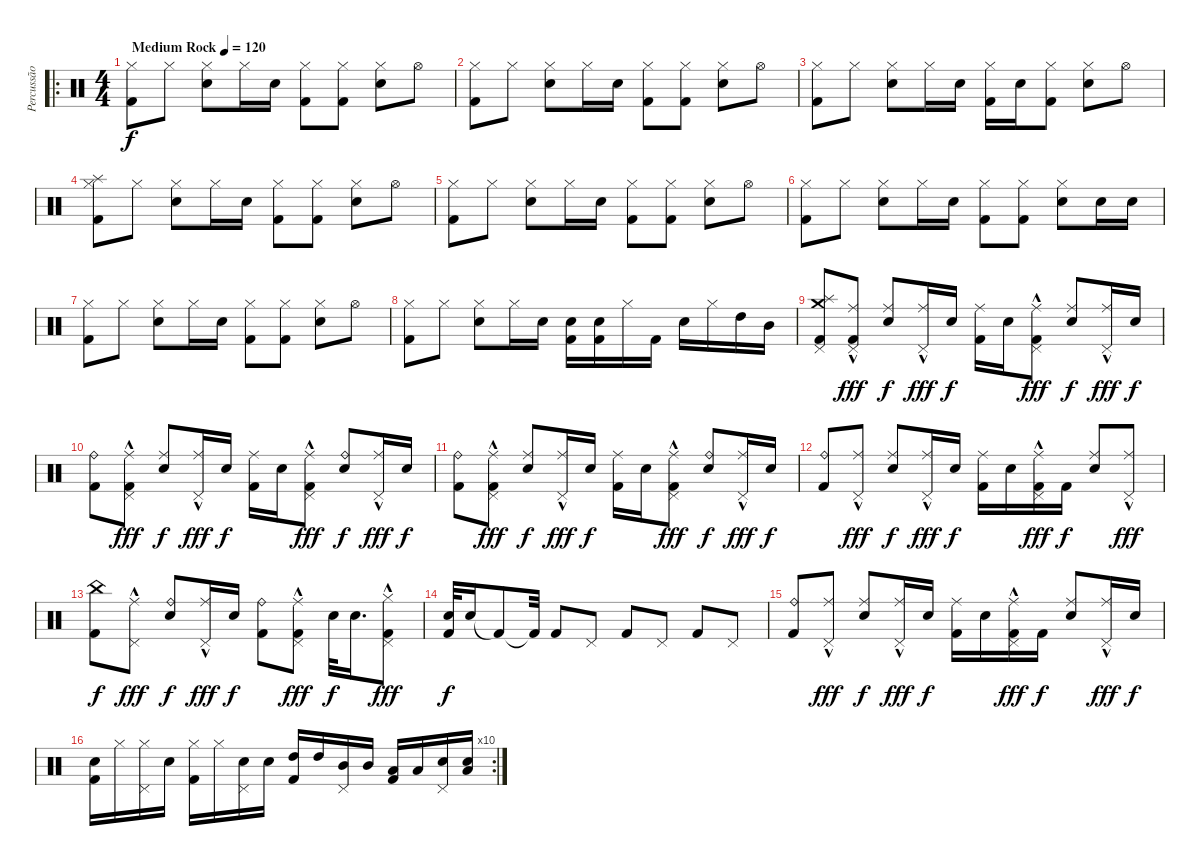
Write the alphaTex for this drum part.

\track ("Percussão" "Percussão") {instrument percussion}
\staff {score}
\articulation defaults
\ro
\ts (4 4)
\tempo (120 "Medium Rock")
\clef neutral
\ks c
("Hi-Hat (closed)" "Kick (hit) 2").8{dy f} "Hi-Hat (closed)".8 ("Hi-Hat (closed)" "Snare (hit) 2").8 "Hi-Hat (closed)".16 "Snare (hit) 2".16 ("Hi-Hat (closed)" "Kick (hit) 2").8 ("Hi-Hat (closed)" "Kick (hit) 2").8 ("Hi-Hat (closed)" "Snare (hit) 2").8 "Hi-Hat (open)".8 |
("Hi-Hat (closed)" "Kick (hit) 2").8 "Hi-Hat (closed)".8 ("Hi-Hat (closed)" "Snare (hit) 2").8 "Hi-Hat (closed)".16 "Snare (hit) 2".16 ("Hi-Hat (closed)" "Kick (hit) 2").8 ("Hi-Hat (closed)" "Kick (hit) 2").8 ("Hi-Hat (closed)" "Snare (hit) 2").8 "Hi-Hat (open)".8 |
("Hi-Hat (closed)" "Kick (hit) 2").8 "Hi-Hat (closed)".8 ("Hi-Hat (closed)" "Snare (hit) 2").8 "Hi-Hat (closed)".16 "Snare (hit) 2".16 ("Hi-Hat (closed)" "Kick (hit) 2").16 "Snare (hit) 2".16 ("Hi-Hat (closed)" "Kick (hit) 2").8 ("Hi-Hat (closed)" "Snare (hit) 2").8 "Hi-Hat (open)".8 |
("Splash (hit)" "Kick (hit) 2" "Hi-Hat (closed)").8 "Hi-Hat (closed)".8 ("Hi-Hat (closed)" "Snare (hit) 2").8 "Hi-Hat (closed)".16 "Snare (hit) 2".16 ("Hi-Hat (closed)" "Kick (hit) 2").8 ("Hi-Hat (closed)" "Kick (hit) 2").8 ("Hi-Hat (closed)" "Snare (hit) 2").8 "Hi-Hat (open)".8 |
("Hi-Hat (closed)" "Kick (hit) 2").8 "Hi-Hat (closed)".8 ("Hi-Hat (closed)" "Snare (hit) 2").8 "Hi-Hat (closed)".16 "Snare (hit) 2".16 ("Hi-Hat (closed)" "Kick (hit) 2").8 ("Hi-Hat (closed)" "Kick (hit) 2").8 ("Hi-Hat (closed)" "Snare (hit) 2").8 "Hi-Hat (open)".8 |
("Hi-Hat (closed)" "Kick (hit) 2").8 "Hi-Hat (closed)".8 ("Hi-Hat (closed)" "Snare (hit) 2").8 "Hi-Hat (closed)".16 "Snare (hit) 2".16 ("Hi-Hat (closed)" "Kick (hit) 2").8 ("Hi-Hat (closed)" "Kick (hit) 2").8 ("Hi-Hat (closed)" "Snare (hit) 2").8 "Snare (hit) 2".16 "Snare (hit) 2".16 |
("Hi-Hat (closed)" "Kick (hit) 2").8 "Hi-Hat (closed)".8 ("Hi-Hat (closed)" "Snare (hit) 2").8 "Hi-Hat (closed)".16 "Snare (hit) 2".16 ("Hi-Hat (closed)" "Kick (hit) 2").8 ("Hi-Hat (closed)" "Kick (hit) 2").8 ("Hi-Hat (closed)" "Snare (hit) 2").8 "Hi-Hat (open)".8 |
("Hi-Hat (closed)" "Kick (hit) 2").8 "Hi-Hat (closed)".8 ("Hi-Hat (closed)" "Snare (hit) 2").8 "Hi-Hat (closed)".16 "Snare (hit) 2".16 ("Snare (hit) 2" "Kick (hit) 2").16 ("Snare (hit) 2" "Kick (hit) 2").16 "Hi-Hat (closed)".16 "Kick (hit) 2".16 "Snare (hit) 2".16 "Hi-Hat (closed)".16 "High Tom (hit)".16 "Mid Tom (hit)".16 |
("Crash medium (hit)" "Kick (hit) 2" "Pedal Hi-Hat (hit)" "Splash (hit)").8 ("Ride (middle)" "Kick (hit) 2" "Pedal Hi-Hat (hit)"{hac}).8{dy fff} ("Ride (middle)" "Snare (hit) 2").8{dy f} ("Ride (middle)" "Pedal Hi-Hat (hit)"{hac}).16{dy fff} "Snare (hit) 2".16{dy f} ("Ride (middle)" "Kick (hit) 2").16 "Snare (hit) 2".16 ("Ride (middle)" "Kick (hit) 2" "Pedal Hi-Hat (hit)"{hac}).8{dy fff} ("Ride (middle)" "Snare (hit) 2").8{dy f} ("Ride (middle)" "Pedal Hi-Hat (hit)"{hac}).16{dy fff} "Snare (hit) 2".16{dy f} |
("Ride (bell)" "Kick (hit) 2").8 ("Ride (middle)" "Kick (hit) 2" "Pedal Hi-Hat (hit)"{hac}).8{dy fff} ("Ride (middle)" "Snare (hit) 2").8{dy f} ("Ride (middle)" "Pedal Hi-Hat (hit)"{hac}).16{dy fff} "Snare (hit) 2".16{dy f} ("Ride (middle)" "Kick (hit) 2").16 "Snare (hit) 2".16 ("Ride (middle)" "Kick (hit) 2" "Pedal Hi-Hat (hit)"{hac}).8{dy fff} ("Ride (bell)" "Snare (hit) 2").8{dy f} ("Ride (middle)" "Pedal Hi-Hat (hit)"{hac}).16{dy fff} "Snare (hit) 2".16{dy f} |
("Ride (bell)" "Kick (hit) 2").8 ("Ride (middle)" "Kick (hit) 2" "Pedal Hi-Hat (hit)"{hac}).8{dy fff} ("Ride (middle)" "Snare (hit) 2").8{dy f} ("Ride (middle)" "Pedal Hi-Hat (hit)"{hac}).16{dy fff} "Snare (hit) 2".16{dy f} ("Ride (middle)" "Kick (hit) 2").16 "Snare (hit) 2".16 ("Ride (middle)" "Kick (hit) 2" "Pedal Hi-Hat (hit)"{hac}).8{dy fff} ("Ride (bell)" "Snare (hit) 2").8{dy f} ("Ride (middle)" "Pedal Hi-Hat (hit)"{hac}).16{dy fff} "Snare (hit) 2".16{dy f} |
("Ride (bell)" "Kick (hit) 2").8 ("Ride (middle)" "Pedal Hi-Hat (hit)"{hac}).8{dy fff} ("Ride (middle)" "Snare (hit) 2").8{dy f} ("Ride (middle)" "Pedal Hi-Hat (hit)"{hac}).16{dy fff} "Snare (hit) 2".16{dy f} ("Ride (middle)" "Kick (hit) 2").16 "Snare (hit) 2".16 ("Ride (middle)" "Kick (hit) 2" "Pedal Hi-Hat (hit)"{hac}).16{dy fff} "Kick (hit) 2".16{dy f} ("Ride (middle)" "Snare (hit) 2").8 ("Ride (middle)" "Pedal Hi-Hat (hit)"{hac}).8{dy fff} |
("Kick (hit) 2" "China (hit)").8{dy f} ("Ride (middle)" "Pedal Hi-Hat (hit)"{hac}).8{dy fff} ("Ride (bell)" "Snare (hit) 2").8{dy f} ("Ride (middle)" "Pedal Hi-Hat (hit)"{hac}).16{dy fff} "Snare (hit) 2".16{dy f} ("Ride (bell)" "Kick (hit) 2").8 ("Ride (middle)" "Kick (hit) 2" "Pedal Hi-Hat (hit)"{hac}).8{dy fff} "Snare (hit) 2".32{dy f} "Snare (hit) 2".16{d} ("Hi-Hat (closed)" "Kick (hit) 2"{hac} "Pedal Hi-Hat (hit)"{hac}).8{dy fff} |
("Snare (hit) 2" "Kick (hit) 2").32{dy f} "Snare (hit) 2".16 "Kick (hit) 2"{t}.8 "Kick (hit) 2"{t}.32 "Kick (hit) 2".8 "Pedal Hi-Hat (hit)".8 "Kick (hit) 2".8 "Pedal Hi-Hat (hit)".8 "Kick (hit) 2".8 "Pedal Hi-Hat (hit)".8 |
("Ride (bell)" "Kick (hit) 2").8 ("Ride (middle)" "Pedal Hi-Hat (hit)"{hac}).8{dy fff} ("Ride (middle)" "Snare (hit) 2").8{dy f} ("Ride (middle)" "Pedal Hi-Hat (hit)"{hac}).16{dy fff} "Snare (hit) 2".16{dy f} ("Ride (middle)" "Kick (hit) 2").16 "Snare (hit) 2".16 ("Ride (middle)" "Kick (hit) 2" "Pedal Hi-Hat (hit)"{hac}).16{dy fff} "Kick (hit) 2".16{dy f} ("Ride (middle)" "Snare (hit) 2").8 ("Ride (middle)" "Pedal Hi-Hat (hit)"{hac}).16{dy fff} "Snare (hit) 2".16{dy f} |
\rc 10
("Snare (hit) 2" "Kick (hit) 2").16 "Hi-Hat (closed)".16 ("Hi-Hat (closed)" "Pedal Hi-Hat (hit)").16 "Snare (hit) 2".16 ("Hi-Hat (closed)" "Kick (hit) 2").16 "Hi-Hat (closed)".16 ("Snare (hit) 2" "Pedal Hi-Hat (hit)").16 "Snare (hit) 2".16 ("High Tom (hit)" "Kick (hit) 2").16 "High Tom (hit)".16 ("Mid Tom (hit)" "Pedal Hi-Hat (hit)").16 "Mid Tom (hit)".16 ("Low Tom (hit)" "Kick (hit) 2").16 "Low Tom (hit)".16 ("Snare (hit) 2" "Pedal Hi-Hat (hit)").16 ("Snare (hit) 2" "Low Tom (hit)").16
